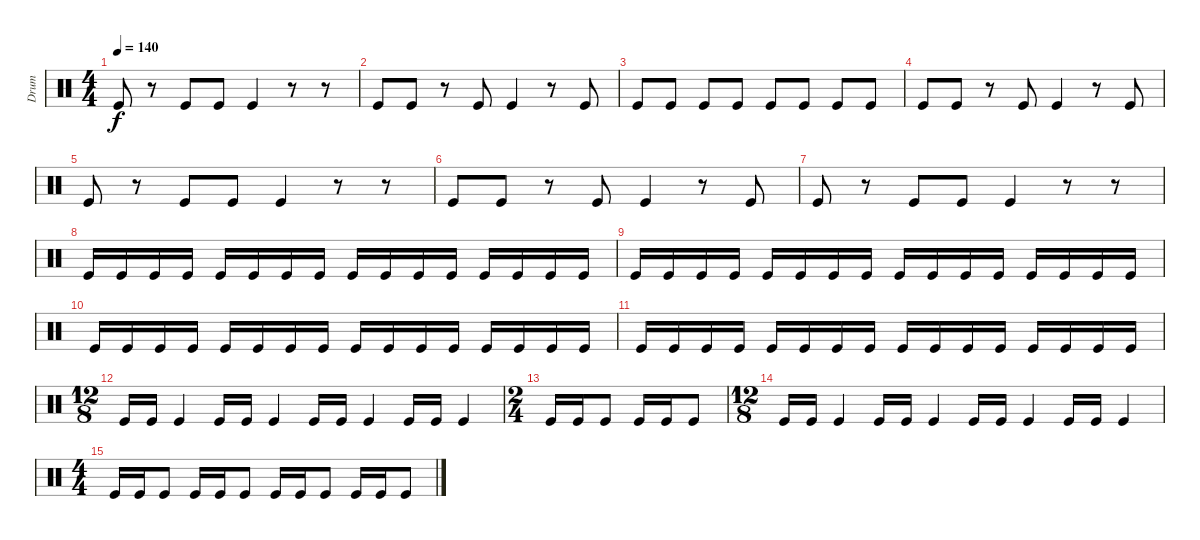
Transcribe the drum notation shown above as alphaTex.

\track ("Drum" "Drum") {instrument percussion}
\staff {score}
\articulation defaults
\ts (4 4)
\tempo 140
\clef neutral
\ks c "Kick (hit)".8{dy f}
r.8 "Kick (hit)".8 "Kick (hit)".8 "Kick (hit)".4 r.8 r.8 |
"Kick (hit)".8 "Kick (hit)".8 r.8 "Kick (hit)".8 "Kick (hit)".4 r.8 "Kick (hit)".8 |
"Kick (hit)".8 "Kick (hit)".8 "Kick (hit)".8 "Kick (hit)".8 "Kick (hit)".8 "Kick (hit)".8 "Kick (hit)".8 "Kick (hit)".8 |
"Kick (hit)".8 "Kick (hit)".8 r.8 "Kick (hit)".8 "Kick (hit)".4 r.8 "Kick (hit)".8 |
"Kick (hit)".8 r.8 "Kick (hit)".8 "Kick (hit)".8 "Kick (hit)".4 r.8 r.8 |
"Kick (hit)".8 "Kick (hit)".8 r.8 "Kick (hit)".8 "Kick (hit)".4 r.8 "Kick (hit)".8 |
"Kick (hit)".8 r.8 "Kick (hit)".8 "Kick (hit)".8 "Kick (hit)".4 r.8 r.8 |
"Kick (hit)".16 "Kick (hit)".16 "Kick (hit)".16 "Kick (hit)".16 "Kick (hit)".16 "Kick (hit)".16 "Kick (hit)".16 "Kick (hit)".16 "Kick (hit)".16 "Kick (hit)".16 "Kick (hit)".16 "Kick (hit)".16 "Kick (hit)".16 "Kick (hit)".16 "Kick (hit)".16 "Kick (hit)".16 |
"Kick (hit)".16 "Kick (hit)".16 "Kick (hit)".16 "Kick (hit)".16 "Kick (hit)".16 "Kick (hit)".16 "Kick (hit)".16 "Kick (hit)".16 "Kick (hit)".16 "Kick (hit)".16 "Kick (hit)".16 "Kick (hit)".16 "Kick (hit)".16 "Kick (hit)".16 "Kick (hit)".16 "Kick (hit)".16 |
"Kick (hit)".16 "Kick (hit)".16 "Kick (hit)".16 "Kick (hit)".16 "Kick (hit)".16 "Kick (hit)".16 "Kick (hit)".16 "Kick (hit)".16 "Kick (hit)".16 "Kick (hit)".16 "Kick (hit)".16 "Kick (hit)".16 "Kick (hit)".16 "Kick (hit)".16 "Kick (hit)".16 "Kick (hit)".16 |
"Kick (hit)".16 "Kick (hit)".16 "Kick (hit)".16 "Kick (hit)".16 "Kick (hit)".16 "Kick (hit)".16 "Kick (hit)".16 "Kick (hit)".16 "Kick (hit)".16 "Kick (hit)".16 "Kick (hit)".16 "Kick (hit)".16 "Kick (hit)".16 "Kick (hit)".16 "Kick (hit)".16 "Kick (hit)".16 |
\ts (12 8)
"Kick (hit)".16 "Kick (hit)".16 "Kick (hit)".4 "Kick (hit)".16 "Kick (hit)".16 "Kick (hit)".4 "Kick (hit)".16 "Kick (hit)".16 "Kick (hit)".4 "Kick (hit)".16 "Kick (hit)".16 "Kick (hit)".4 |
\ts (2 4)
"Kick (hit)".16 "Kick (hit)".16 "Kick (hit)".8 "Kick (hit)".16 "Kick (hit)".16 "Kick (hit)".8 |
\ts (12 8)
"Kick (hit)".16 "Kick (hit)".16 "Kick (hit)".4 "Kick (hit)".16 "Kick (hit)".16 "Kick (hit)".4 "Kick (hit)".16 "Kick (hit)".16 "Kick (hit)".4 "Kick (hit)".16 "Kick (hit)".16 "Kick (hit)".4 |
\ts (4 4)
"Kick (hit)".16 "Kick (hit)".16 "Kick (hit)".8 "Kick (hit)".16 "Kick (hit)".16 "Kick (hit)".8 "Kick (hit)".16 "Kick (hit)".16 "Kick (hit)".8 "Kick (hit)".16 "Kick (hit)".16 "Kick (hit)".8
